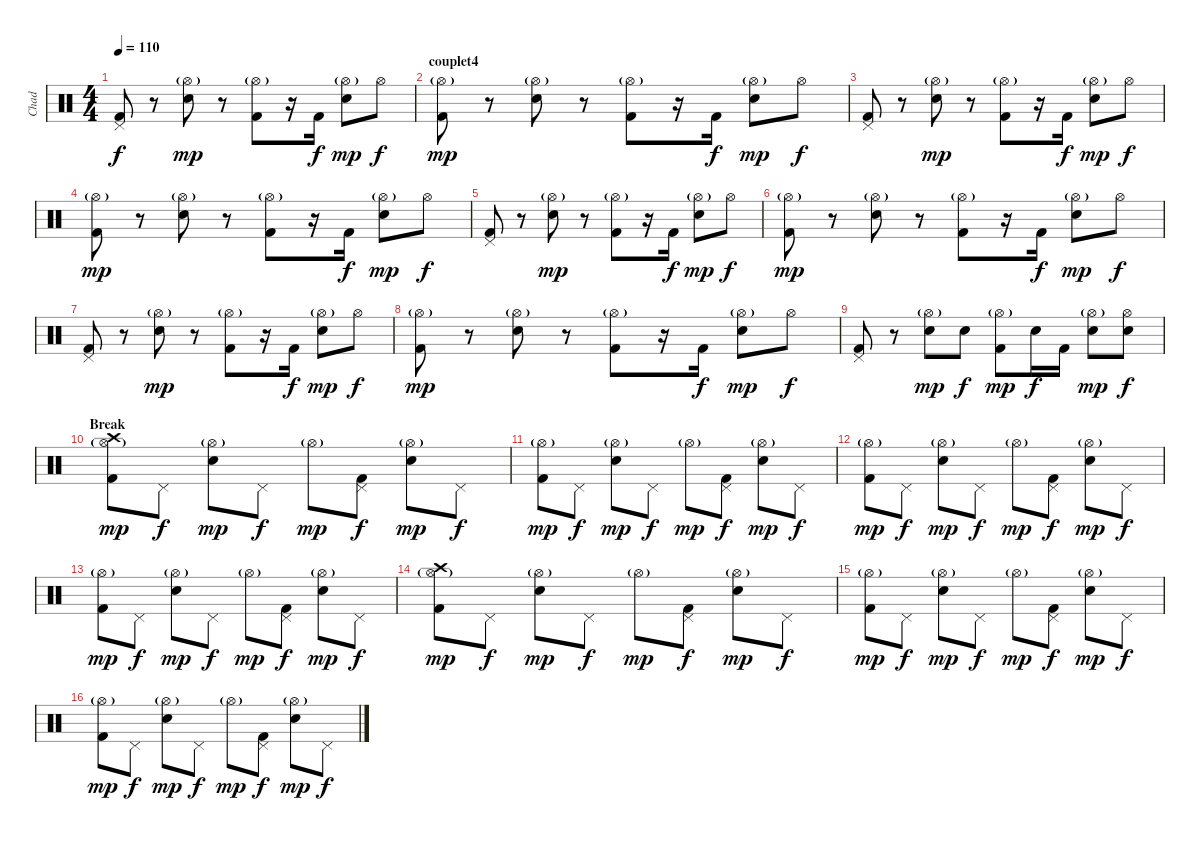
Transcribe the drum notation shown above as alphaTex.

\track ("Chad" "Chad") {instrument percussion}
\staff {score}
\articulation defaults
\ts (4 4)
\tempo 110
\clef neutral
\ks c
("Pedal Hi-Hat (hit)" "Kick (hit) 2").8{dy f} r.8 ("Hi-Hat (open)"{g} "Electric Snare (hit)").8{dy mp} r.8 ("Hi-Hat (open)"{g} "Kick (hit) 2").8 r.16 "Kick (hit) 2".16{dy f} ("Hi-Hat (open)"{g} "Electric Snare (hit)").8{dy mp} "Hi-Hat (open)".8{dy f} |
\section ("" "couplet4")
("Hi-Hat (open)"{g} "Kick (hit) 2").8{dy mp} r.8 ("Hi-Hat (open)"{g} "Electric Snare (hit)").8 r.8 ("Hi-Hat (open)"{g} "Kick (hit) 2").8 r.16 "Kick (hit) 2".16{dy f} ("Hi-Hat (open)"{g} "Electric Snare (hit)").8{dy mp} "Hi-Hat (open)".8{dy f} |
("Pedal Hi-Hat (hit)" "Kick (hit) 2").8 r.8 ("Hi-Hat (open)"{g} "Electric Snare (hit)").8{dy mp} r.8 ("Hi-Hat (open)"{g} "Kick (hit) 2").8 r.16 "Kick (hit) 2".16{dy f} ("Hi-Hat (open)"{g} "Electric Snare (hit)").8{dy mp} "Hi-Hat (open)".8{dy f} |
("Hi-Hat (open)"{g} "Kick (hit) 2").8{dy mp} r.8 ("Hi-Hat (open)"{g} "Electric Snare (hit)").8 r.8 ("Hi-Hat (open)"{g} "Kick (hit) 2").8 r.16 "Kick (hit) 2".16{dy f} ("Hi-Hat (open)"{g} "Electric Snare (hit)").8{dy mp} "Hi-Hat (open)".8{dy f} |
("Pedal Hi-Hat (hit)" "Kick (hit) 2").8 r.8 ("Hi-Hat (open)"{g} "Electric Snare (hit)").8{dy mp} r.8 ("Hi-Hat (open)"{g} "Kick (hit) 2").8 r.16 "Kick (hit) 2".16{dy f} ("Hi-Hat (open)"{g} "Electric Snare (hit)").8{dy mp} "Hi-Hat (open)".8{dy f} |
("Hi-Hat (open)"{g} "Kick (hit) 2").8{dy mp} r.8 ("Hi-Hat (open)"{g} "Electric Snare (hit)").8 r.8 ("Hi-Hat (open)"{g} "Kick (hit) 2").8 r.16 "Kick (hit) 2".16{dy f} ("Hi-Hat (open)"{g} "Electric Snare (hit)").8{dy mp} "Hi-Hat (open)".8{dy f} |
("Pedal Hi-Hat (hit)" "Kick (hit) 2").8 r.8 ("Hi-Hat (open)"{g} "Electric Snare (hit)").8{dy mp} r.8 ("Hi-Hat (open)"{g} "Kick (hit) 2").8 r.16 "Kick (hit) 2".16{dy f} ("Hi-Hat (open)"{g} "Electric Snare (hit)").8{dy mp} "Hi-Hat (open)".8{dy f} |
("Hi-Hat (open)"{g} "Kick (hit) 2").8{dy mp} r.8 ("Hi-Hat (open)"{g} "Electric Snare (hit)").8 r.8 ("Hi-Hat (open)"{g} "Kick (hit) 2").8 r.16 "Kick (hit) 2".16{dy f} ("Hi-Hat (open)"{g} "Electric Snare (hit)").8{dy mp} "Hi-Hat (open)".8{dy f} |
("Pedal Hi-Hat (hit)" "Kick (hit) 2").8 r.8 ("Hi-Hat (open)"{g} "Electric Snare (hit)").8{dy mp} "Electric Snare (hit)".8{dy f} ("Hi-Hat (open)"{g} "Kick (hit) 2").8{dy mp} "Electric Snare (hit)".16{dy f} "Kick (hit) 2".16 ("Hi-Hat (open)"{g} "Electric Snare (hit)").8{dy mp} ("Hi-Hat (open)" "Electric Snare (hit)").8{dy f} |
\section ("" "Break")
("Crash high (hit)" "Hi-Hat (open)"{g} "Kick (hit) 2").8{dy mp} "Pedal Hi-Hat (hit)".8{dy f} ("Hi-Hat (open)"{g} "Electric Snare (hit)").8{dy mp} "Pedal Hi-Hat (hit)".8{dy f} "Hi-Hat (open)"{g}.8{dy mp} ("Pedal Hi-Hat (hit)" "Kick (hit) 2").8{dy f} ("Hi-Hat (open)"{g} "Electric Snare (hit)").8{dy mp} "Pedal Hi-Hat (hit)".8{dy f} |
("Hi-Hat (open)"{g} "Kick (hit) 2").8{dy mp} "Pedal Hi-Hat (hit)".8{dy f} ("Hi-Hat (open)"{g} "Electric Snare (hit)").8{dy mp} "Pedal Hi-Hat (hit)".8{dy f} "Hi-Hat (open)"{g}.8{dy mp} ("Pedal Hi-Hat (hit)" "Kick (hit) 2").8{dy f} ("Hi-Hat (open)"{g} "Electric Snare (hit)").8{dy mp} "Pedal Hi-Hat (hit)".8{dy f} |
("Hi-Hat (open)"{g} "Kick (hit) 2").8{dy mp} "Pedal Hi-Hat (hit)".8{dy f} ("Hi-Hat (open)"{g} "Electric Snare (hit)").8{dy mp} "Pedal Hi-Hat (hit)".8{dy f} "Hi-Hat (open)"{g}.8{dy mp} ("Pedal Hi-Hat (hit)" "Kick (hit) 2").8{dy f} ("Hi-Hat (open)"{g} "Electric Snare (hit)").8{dy mp} "Pedal Hi-Hat (hit)".8{dy f} |
("Hi-Hat (open)"{g} "Kick (hit) 2").8{dy mp} "Pedal Hi-Hat (hit)".8{dy f} ("Hi-Hat (open)"{g} "Electric Snare (hit)").8{dy mp} "Pedal Hi-Hat (hit)".8{dy f} "Hi-Hat (open)"{g}.8{dy mp} ("Pedal Hi-Hat (hit)" "Kick (hit) 2").8{dy f} ("Hi-Hat (open)"{g} "Electric Snare (hit)").8{dy mp} "Pedal Hi-Hat (hit)".8{dy f} |
("Crash high (hit)" "Hi-Hat (open)"{g} "Kick (hit) 2").8{dy mp} "Pedal Hi-Hat (hit)".8{dy f} ("Hi-Hat (open)"{g} "Electric Snare (hit)").8{dy mp} "Pedal Hi-Hat (hit)".8{dy f} "Hi-Hat (open)"{g}.8{dy mp} ("Pedal Hi-Hat (hit)" "Kick (hit) 2").8{dy f} ("Hi-Hat (open)"{g} "Electric Snare (hit)").8{dy mp} "Pedal Hi-Hat (hit)".8{dy f} |
("Hi-Hat (open)"{g} "Kick (hit) 2").8{dy mp} "Pedal Hi-Hat (hit)".8{dy f} ("Hi-Hat (open)"{g} "Electric Snare (hit)").8{dy mp} "Pedal Hi-Hat (hit)".8{dy f} "Hi-Hat (open)"{g}.8{dy mp} ("Pedal Hi-Hat (hit)" "Kick (hit) 2").8{dy f} ("Hi-Hat (open)"{g} "Electric Snare (hit)").8{dy mp} "Pedal Hi-Hat (hit)".8{dy f} |
("Hi-Hat (open)"{g} "Kick (hit) 2").8{dy mp} "Pedal Hi-Hat (hit)".8{dy f} ("Hi-Hat (open)"{g} "Electric Snare (hit)").8{dy mp} "Pedal Hi-Hat (hit)".8{dy f} "Hi-Hat (open)"{g}.8{dy mp} ("Pedal Hi-Hat (hit)" "Kick (hit) 2").8{dy f} ("Hi-Hat (open)"{g} "Electric Snare (hit)").8{dy mp} "Pedal Hi-Hat (hit)".8{dy f}
